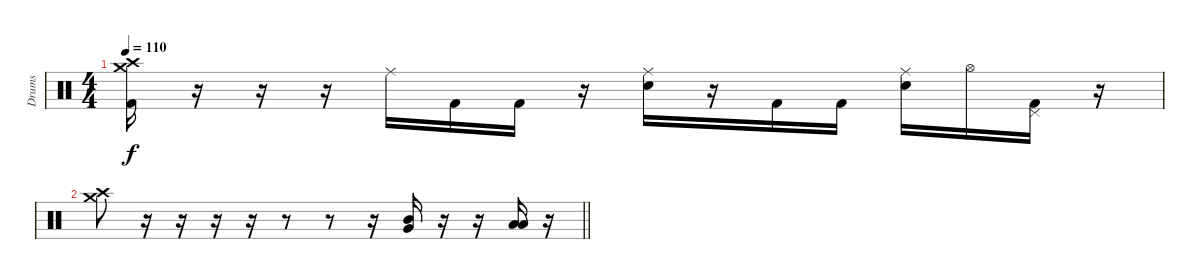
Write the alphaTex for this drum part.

\track ("Drums" "Drums") {instrument percussion}
\staff {score}
\articulation defaults
\ts (4 4)
\tempo 110
\clef neutral
\ks c
("Crash medium (hit)" "Crash high (hit)" "Kick (hit) 2").16{dy f} r.16 r.16 r.16 "Ride (middle)".16 "Kick (hit) 2".16 "Kick (hit) 2".16 r.16 ("Ride (middle)" "Snare (hit) 2").16 r.16 "Kick (hit) 2".16 "Kick (hit) 2".16 ("Ride (middle)" "Snare (hit) 2").16 "Hi-Hat (open)".16 ("Pedal Hi-Hat (hit)" "Kick (hit) 2").16 r.16 |
\barLineRight lightlight
("Crash medium (hit)" "Crash high (hit)").8 r.16 r.16 r.16 r.16 r.8 r.8 r.16 ("Very Low Tom (hit)" "Mid Tom (hit)").16 r.16 r.16 ("Low Floor Tom (hit)" "Low Tom (hit)").16 r.16
